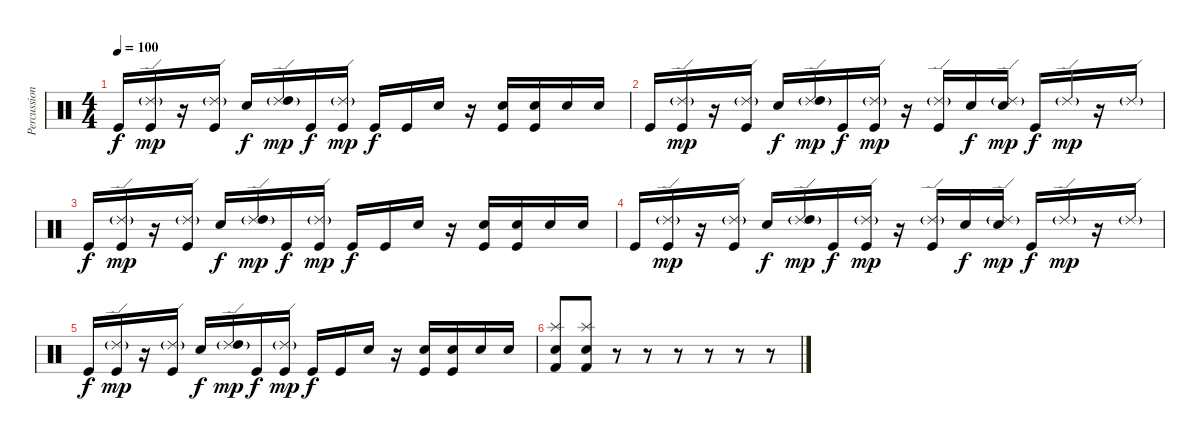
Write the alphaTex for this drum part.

\track ("Percussions" "Percussion") {instrument percussion}
\staff {score}
\articulation defaults
\ts (4 4)
\tempo 100
\clef neutral
\ks c "Kick (hit)".16{dy f}
("Ride (edge) 2"{g} "Kick (hit)").16{dy mp} r.16 ("Ride (edge) 2"{g} "Kick (hit)").16 "Snare (hit) 2".16{dy f} ("Ride (edge) 2"{g} "High Tom (hit)").16{dy mp} "Kick (hit)".16{dy f} ("Ride (edge) 2"{g} "Kick (hit)").16{dy mp} "Kick (hit)".16{dy f} "Kick (hit)".16 "Snare (hit) 2".16 r.16 ("Electric Snare (hit)" "Kick (hit)").16 ("Electric Snare (hit)" "Kick (hit)").16 "Electric Snare (hit)".16 "Electric Snare (hit)".16 |
"Kick (hit)".16 ("Ride (edge) 2"{g} "Kick (hit)").16{dy mp} r.16 ("Ride (edge) 2"{g} "Kick (hit)").16 "Snare (hit) 2".16{dy f} ("Ride (edge) 2"{g} "High Tom (hit)").16{dy mp} "Kick (hit)".16{dy f} ("Ride (edge) 2"{g} "Kick (hit)").16{dy mp} r.16 ("Ride (edge) 2"{g} "Kick (hit)").16 "Snare (hit) 2".16{dy f} ("Ride (edge) 2"{g} "Snare (hit) 2").16{dy mp} "Kick (hit)".16{dy f} "Ride (edge) 2"{g}.16{dy mp} r.16 "Ride (edge) 2"{g}.16 |
"Kick (hit)".16{dy f} ("Ride (edge) 2"{g} "Kick (hit)").16{dy mp} r.16 ("Ride (edge) 2"{g} "Kick (hit)").16 "Snare (hit) 2".16{dy f} ("Ride (edge) 2"{g} "High Tom (hit)").16{dy mp} "Kick (hit)".16{dy f} ("Ride (edge) 2"{g} "Kick (hit)").16{dy mp} "Kick (hit)".16{dy f} "Kick (hit)".16 "Snare (hit) 2".16 r.16 ("Electric Snare (hit)" "Kick (hit)").16 ("Electric Snare (hit)" "Kick (hit)").16 "Electric Snare (hit)".16 "Electric Snare (hit)".16 |
"Kick (hit)".16 ("Ride (edge) 2"{g} "Kick (hit)").16{dy mp} r.16 ("Ride (edge) 2"{g} "Kick (hit)").16 "Snare (hit) 2".16{dy f} ("Ride (edge) 2"{g} "High Tom (hit)").16{dy mp} "Kick (hit)".16{dy f} ("Ride (edge) 2"{g} "Kick (hit)").16{dy mp} r.16 ("Ride (edge) 2"{g} "Kick (hit)").16 "Snare (hit) 2".16{dy f} ("Ride (edge) 2"{g} "Snare (hit) 2").16{dy mp} "Kick (hit)".16{dy f} "Ride (edge) 2"{g}.16{dy mp} r.16 "Ride (edge) 2"{g}.16 |
"Kick (hit)".16{dy f} ("Ride (edge) 2"{g} "Kick (hit)").16{dy mp} r.16 ("Ride (edge) 2"{g} "Kick (hit)").16 "Snare (hit) 2".16{dy f} ("Ride (edge) 2"{g} "High Tom (hit)").16{dy mp} "Kick (hit)".16{dy f} ("Ride (edge) 2"{g} "Kick (hit)").16{dy mp} "Kick (hit)".16{dy f} "Kick (hit)".16 "Snare (hit) 2".16 r.16 ("Electric Snare (hit)" "Kick (hit)").16 ("Electric Snare (hit)" "Kick (hit)").16 "Electric Snare (hit)".16 "Electric Snare (hit)".16 |
("Splash (hit)" "Electric Snare (hit)" "Kick (hit) 2").8 ("Splash (hit)" "Electric Snare (hit)" "Kick (hit) 2").8 r.8 r.8 r.8 r.8 r.8 r.8
